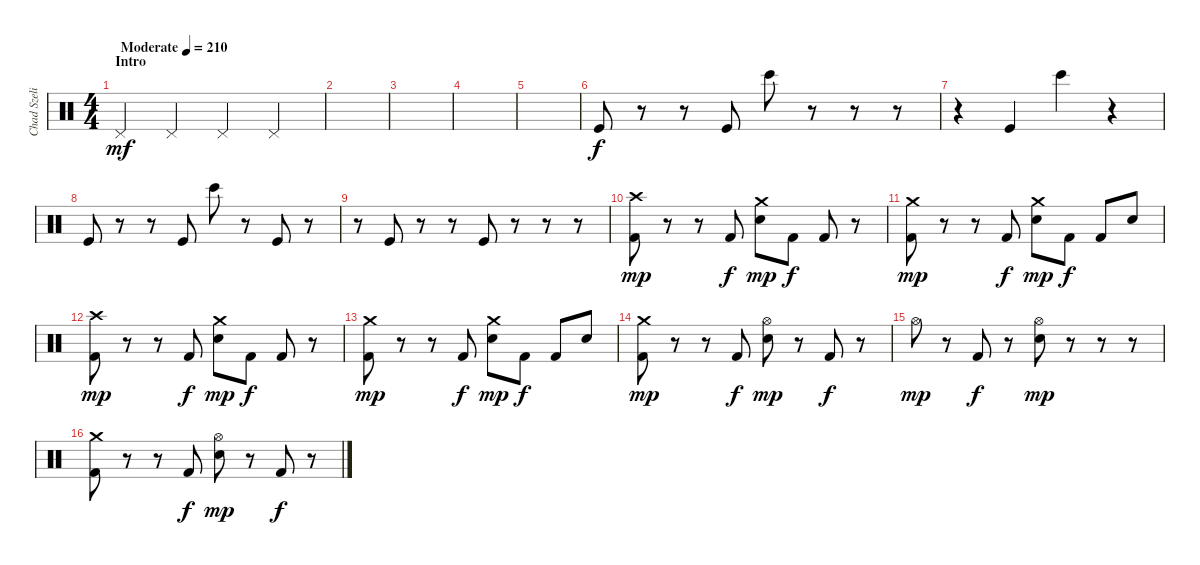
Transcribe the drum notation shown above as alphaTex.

\track ("Chad Szeliga" "Chad Szeli") {instrument percussion}
\staff {score}
\articulation defaults
\ts (4 4)
\section ("" "Intro")
\tempo (210 "Moderate")
\clef neutral
\ks c "Pedal Hi-Hat (hit)".4{dy mf} "Pedal Hi-Hat (hit)".4 "Pedal Hi-Hat (hit)".4 "Pedal Hi-Hat (hit)".4
|
|
|
|
|
"Kick (hit)".8{dy f} r.8 r.8 "Kick (hit)".8 "Bongo High (hit)".8 r.8 r.8 r.8 |
r.4 "Kick (hit)".4 "Bongo High (hit)".4 r.4 |
"Kick (hit)".8 r.8 r.8 "Kick (hit)".8 "Bongo High (hit)".8 r.8 "Kick (hit)".8 r.8 |
r.8 "Kick (hit)".8 r.8 r.8 "Kick (hit)".8 r.8 r.8 r.8 |
("Kick (hit) 2" "Crash high (hit)").8{dy mp} r.8 r.8 "Kick (hit) 2".8{dy f} ("Snare (hit) 2" "Crash medium (hit)").8{dy mp} "Kick (hit) 2".8{dy f} "Kick (hit) 2".8 r.8 |
("Kick (hit) 2" "Crash medium (hit)").8{dy mp} r.8 r.8 "Kick (hit) 2".8{dy f} ("Snare (hit) 2" "Crash medium (hit)").8{dy mp} "Kick (hit) 2".8{dy f} "Kick (hit) 2".8 "Snare (hit) 2".8 |
("Kick (hit) 2" "Crash high (hit)").8{dy mp} r.8 r.8 "Kick (hit) 2".8{dy f} ("Snare (hit) 2" "Crash medium (hit)").8{dy mp} "Kick (hit) 2".8{dy f} "Kick (hit) 2".8 r.8 |
("Kick (hit) 2" "Crash medium (hit)").8{dy mp} r.8 r.8 "Kick (hit) 2".8{dy f} ("Snare (hit) 2" "Crash medium (hit)").8{dy mp} "Kick (hit) 2".8{dy f} "Kick (hit) 2".8 "Snare (hit) 2".8 |
("Kick (hit) 2" "Crash medium (hit)").8{dy mp} r.8 r.8 "Kick (hit) 2".8{dy f} ("Snare (hit) 2" "Hi-Hat (open)").8{dy mp} r.8 "Kick (hit) 2".8{dy f} r.8 |
"Hi-Hat (open)".8{dy mp} r.8 "Kick (hit) 2".8{dy f} r.8 ("Snare (hit) 2" "Hi-Hat (open)").8{dy mp} r.8 r.8 r.8 |
("Kick (hit) 2" "Crash medium (hit)").8 r.8 r.8 "Kick (hit) 2".8{dy f} ("Snare (hit) 2" "Hi-Hat (open)").8{dy mp} r.8 "Kick (hit) 2".8{dy f} r.8
